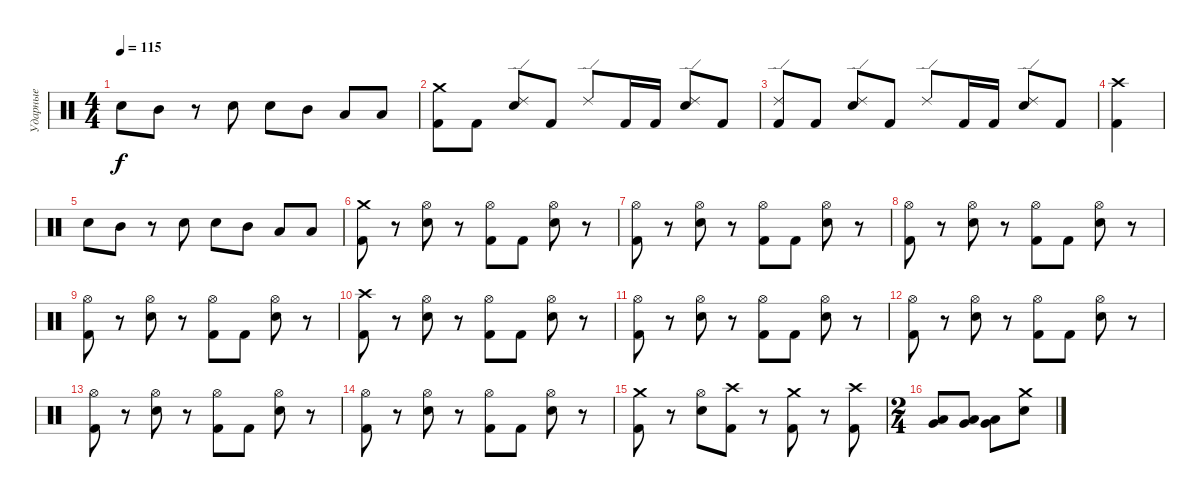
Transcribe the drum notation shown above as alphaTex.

\track ("Ударные" "Ударные") {instrument percussion}
\staff {score}
\articulation defaults
\ts (4 4)
\tempo 115
\clef neutral
\ks c "Electric Snare (hit)".8{dy f} "Mid Tom (hit)".8
r.8 "Electric Snare (hit)".8 "Electric Snare (hit)".8 "Mid Tom (hit)".8 "Low Tom (hit)".8 "Low Tom (hit)".8 |
("Crash medium (hit)" "Kick (hit) 2").8 "Kick (hit) 2".8 ("Ride (edge) 2" "Electric Snare (hit)").8 "Kick (hit) 2".8 "Ride (edge) 2".8 "Kick (hit) 2".16 "Kick (hit) 2".16 ("Ride (edge) 2" "Electric Snare (hit)").8 "Kick (hit) 2".8 |
("Ride (edge) 2" "Kick (hit) 2").8 "Kick (hit) 2".8 ("Ride (edge) 2" "Electric Snare (hit)").8 "Kick (hit) 2".8 "Ride (edge) 2".8 "Kick (hit) 2".16 "Kick (hit) 2".16 ("Ride (edge) 2" "Electric Snare (hit)").8 "Kick (hit) 2".8 |
("Crash high (hit)" "Kick (hit) 2").4 |
"Electric Snare (hit)".8 "Mid Tom (hit)".8 r.8 "Electric Snare (hit)".8 "Electric Snare (hit)".8 "Mid Tom (hit)".8 "Low Tom (hit)".8 "Low Tom (hit)".8 |
("Crash medium (hit)" "Kick (hit) 2").8 r.8 ("Hi-Hat (open)" "Electric Snare (hit)").8 r.8 ("Hi-Hat (open)" "Kick (hit) 2").8 "Kick (hit) 2".8 ("Hi-Hat (open)" "Electric Snare (hit)").8 r.8 |
("Hi-Hat (open)" "Kick (hit) 2").8 r.8 ("Hi-Hat (open)" "Electric Snare (hit)").8 r.8 ("Hi-Hat (open)" "Kick (hit) 2").8 "Kick (hit) 2".8 ("Hi-Hat (open)" "Electric Snare (hit)").8 r.8 |
("Hi-Hat (open)" "Kick (hit) 2").8 r.8 ("Hi-Hat (open)" "Electric Snare (hit)").8 r.8 ("Hi-Hat (open)" "Kick (hit) 2").8 "Kick (hit) 2".8 ("Hi-Hat (open)" "Electric Snare (hit)").8 r.8 |
("Hi-Hat (open)" "Kick (hit) 2").8 r.8 ("Hi-Hat (open)" "Electric Snare (hit)").8 r.8 ("Hi-Hat (open)" "Kick (hit) 2").8 "Kick (hit) 2".8 ("Hi-Hat (open)" "Electric Snare (hit)").8 r.8 |
("Crash high (hit)" "Kick (hit) 2").8 r.8 ("Hi-Hat (open)" "Electric Snare (hit)").8 r.8 ("Hi-Hat (open)" "Kick (hit) 2").8 "Kick (hit) 2".8 ("Hi-Hat (open)" "Electric Snare (hit)").8 r.8 |
("Hi-Hat (open)" "Kick (hit) 2").8 r.8 ("Hi-Hat (open)" "Electric Snare (hit)").8 r.8 ("Hi-Hat (open)" "Kick (hit) 2").8 "Kick (hit) 2".8 ("Hi-Hat (open)" "Electric Snare (hit)").8 r.8 |
("Hi-Hat (open)" "Kick (hit) 2").8 r.8 ("Hi-Hat (open)" "Electric Snare (hit)").8 r.8 ("Hi-Hat (open)" "Kick (hit) 2").8 "Kick (hit) 2".8 ("Hi-Hat (open)" "Electric Snare (hit)").8 r.8 |
("Hi-Hat (open)" "Kick (hit) 2").8 r.8 ("Hi-Hat (open)" "Electric Snare (hit)").8 r.8 ("Hi-Hat (open)" "Kick (hit) 2").8 "Kick (hit) 2".8 ("Hi-Hat (open)" "Electric Snare (hit)").8 r.8 |
("Hi-Hat (open)" "Kick (hit) 2").8 r.8 ("Hi-Hat (open)" "Electric Snare (hit)").8 r.8 ("Hi-Hat (open)" "Kick (hit) 2").8 "Kick (hit) 2".8 ("Hi-Hat (open)" "Electric Snare (hit)").8 r.8 |
("Crash medium (hit)" "Kick (hit) 2").8 r.8 ("Hi-Hat (open)" "Electric Snare (hit)").8 ("Crash high (hit)" "Kick (hit) 2").8 r.8 ("Crash medium (hit)" "Kick (hit) 2").8 r.8 ("Crash high (hit)" "Kick (hit) 2").8 |
\ts (2 4)
("Low Tom (hit)" "Very Low Tom (hit)").8 ("Low Tom (hit)" "Very Low Tom (hit)").8 ("Low Tom (hit)" "Very Low Tom (hit)").8 ("Crash medium (hit)" "Electric Snare (hit)").8
